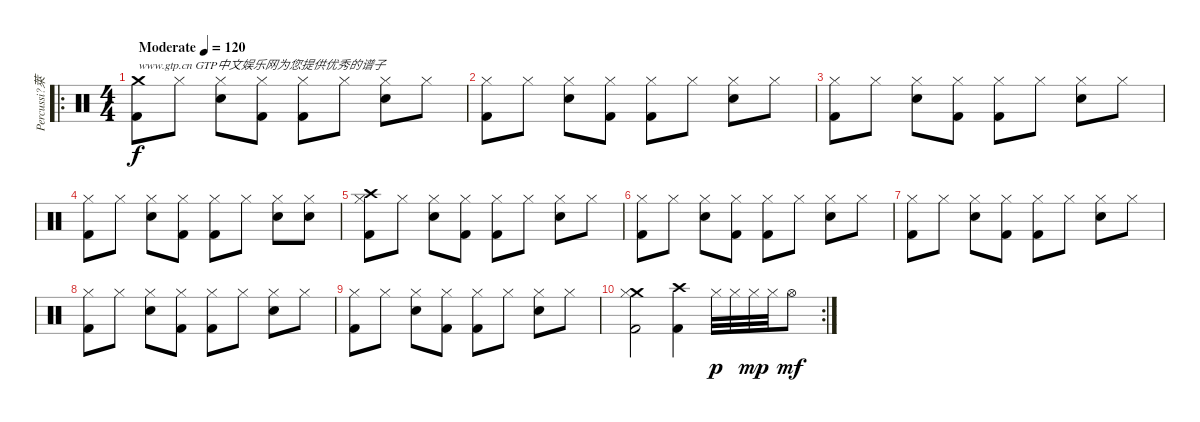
\track ("Percussi?萊TEdit" "Percussi?萊") {instrument percussion}
\staff {score}
\articulation defaults
\ro
\ts (4 4)
\tempo (120 "Moderate")
\clef neutral
\ks c
("Crash medium (hit)" "Kick (hit) 2").8{txt "www.gtp.cn GTP中文娱乐网为您提供优秀的谱子" dy f} "Hi-Hat (closed)".8 ("Electric Snare (hit)" "Hi-Hat (closed)").8 ("Kick (hit) 2" "Hi-Hat (closed)").8 ("Kick (hit) 2" "Hi-Hat (closed)").8 "Hi-Hat (closed)".8 ("Electric Snare (hit)" "Hi-Hat (closed)").8 "Hi-Hat (closed)".8 |
("Hi-Hat (closed)" "Kick (hit) 2").8 "Hi-Hat (closed)".8 ("Electric Snare (hit)" "Hi-Hat (closed)").8 ("Kick (hit) 2" "Hi-Hat (closed)").8 ("Kick (hit) 2" "Hi-Hat (closed)").8 "Hi-Hat (closed)".8 ("Electric Snare (hit)" "Hi-Hat (closed)").8 "Hi-Hat (closed)".8 |
("Hi-Hat (closed)" "Kick (hit) 2").8 "Hi-Hat (closed)".8 ("Electric Snare (hit)" "Hi-Hat (closed)").8 ("Kick (hit) 2" "Hi-Hat (closed)").8 ("Kick (hit) 2" "Hi-Hat (closed)").8 "Hi-Hat (closed)".8 ("Electric Snare (hit)" "Hi-Hat (closed)").8 "Hi-Hat (closed)".8 |
("Hi-Hat (closed)" "Kick (hit) 2").8 "Hi-Hat (closed)".8 ("Electric Snare (hit)" "Hi-Hat (closed)").8 ("Kick (hit) 2" "Hi-Hat (closed)").8 ("Kick (hit) 2" "Hi-Hat (closed)").8 "Hi-Hat (closed)".8 ("Electric Snare (hit)" "Hi-Hat (closed)").8 ("Electric Snare (hit)" "Hi-Hat (closed)").8 |
("Crash high (hit)" "Hi-Hat (closed)" "Kick (hit) 2").8 "Hi-Hat (closed)".8 ("Electric Snare (hit)" "Hi-Hat (closed)").8 ("Kick (hit) 2" "Hi-Hat (closed)").8 ("Kick (hit) 2" "Hi-Hat (closed)").8 "Hi-Hat (closed)".8 ("Electric Snare (hit)" "Hi-Hat (closed)").8 "Hi-Hat (closed)".8 |
("Hi-Hat (closed)" "Kick (hit) 2").8 "Hi-Hat (closed)".8 ("Electric Snare (hit)" "Hi-Hat (closed)").8 ("Kick (hit) 2" "Hi-Hat (closed)").8 ("Kick (hit) 2" "Hi-Hat (closed)").8 "Hi-Hat (closed)".8 ("Electric Snare (hit)" "Hi-Hat (closed)").8 "Hi-Hat (closed)".8 |
("Hi-Hat (closed)" "Kick (hit) 2").8 "Hi-Hat (closed)".8 ("Electric Snare (hit)" "Hi-Hat (closed)").8 ("Kick (hit) 2" "Hi-Hat (closed)").8 ("Kick (hit) 2" "Hi-Hat (closed)").8 "Hi-Hat (closed)".8 ("Electric Snare (hit)" "Hi-Hat (closed)").8 "Hi-Hat (closed)".8 |
("Hi-Hat (closed)" "Kick (hit) 2").8 "Hi-Hat (closed)".8 ("Electric Snare (hit)" "Hi-Hat (closed)").8 ("Kick (hit) 2" "Hi-Hat (closed)").8 ("Kick (hit) 2" "Hi-Hat (closed)").8 "Hi-Hat (closed)".8 ("Electric Snare (hit)" "Hi-Hat (closed)").8 "Hi-Hat (closed)".8 |
("Hi-Hat (closed)" "Kick (hit) 2").8 "Hi-Hat (closed)".8 ("Electric Snare (hit)" "Hi-Hat (closed)").8 ("Kick (hit) 2" "Hi-Hat (closed)").8 ("Kick (hit) 2" "Hi-Hat (closed)").8 "Hi-Hat (closed)".8 ("Electric Snare (hit)" "Hi-Hat (closed)").8 "Hi-Hat (closed)".8 |
\rc 2
("Crash medium (hit)" "Hi-Hat (closed)" "Kick (hit) 2").2 ("Crash high (hit)" "Kick (hit) 2").4 "Hi-Hat (closed)".32{dy p} "Hi-Hat (closed)".32 "Hi-Hat (closed)".32{dy mp} "Hi-Hat (closed)".32 "Hi-Hat (open)".8{dy mf}
